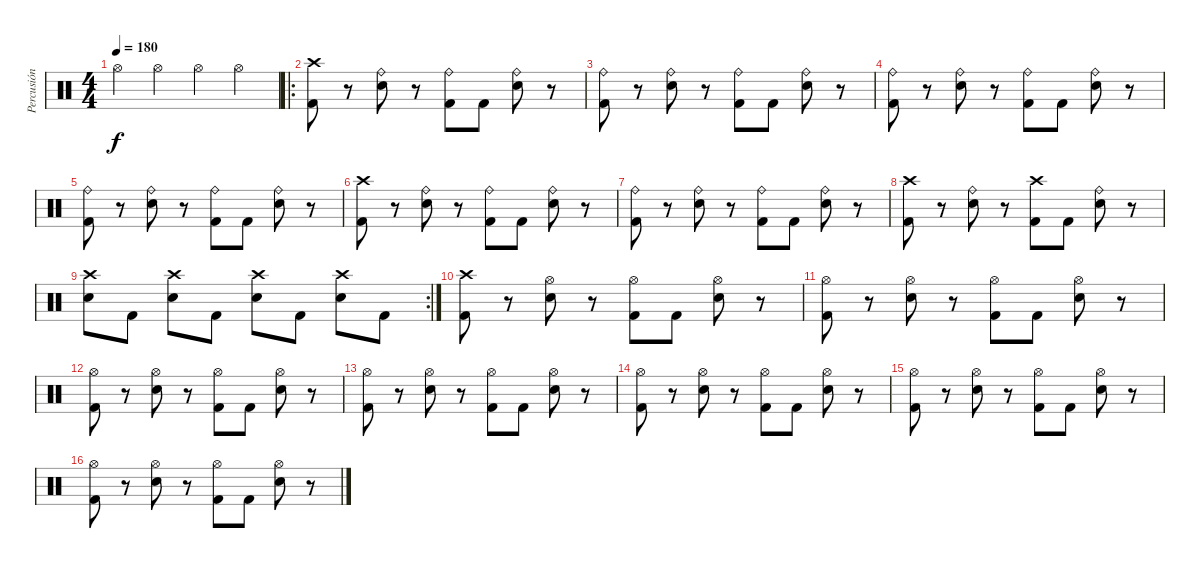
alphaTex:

\track ("Percusión" "Percusión") {instrument percussion}
\staff {score}
\articulation defaults
\ts (4 4)
\tempo 180
\clef neutral
\ks c "Hi-Hat (open)".4{dy f} "Hi-Hat (open)".4 "Hi-Hat (open)".4 "Hi-Hat (open)".4
|
\ro
("Crash high (hit)" "Kick (hit) 2").8 r.8 ("Ride (bell)" "Electric Snare (hit)").8 r.8 ("Ride (bell)" "Kick (hit) 2").8 "Kick (hit) 2".8 ("Ride (bell)" "Electric Snare (hit)").8 r.8 |
("Ride (bell)" "Kick (hit) 2").8 r.8 ("Ride (bell)" "Electric Snare (hit)").8 r.8 ("Ride (bell)" "Kick (hit) 2").8 "Kick (hit) 2".8 ("Ride (bell)" "Electric Snare (hit)").8 r.8 |
("Ride (bell)" "Kick (hit) 2").8 r.8 ("Ride (bell)" "Electric Snare (hit)").8 r.8 ("Ride (bell)" "Kick (hit) 2").8 "Kick (hit) 2".8 ("Ride (bell)" "Electric Snare (hit)").8 r.8 |
("Ride (bell)" "Kick (hit) 2").8 r.8 ("Ride (bell)" "Electric Snare (hit)").8 r.8 ("Ride (bell)" "Kick (hit) 2").8 "Kick (hit) 2".8 ("Ride (bell)" "Electric Snare (hit)").8 r.8 |
("Crash high (hit)" "Kick (hit) 2").8 r.8 ("Ride (bell)" "Electric Snare (hit)").8 r.8 ("Ride (bell)" "Kick (hit) 2").8 "Kick (hit) 2".8 ("Ride (bell)" "Electric Snare (hit)").8 r.8 |
("Ride (bell)" "Kick (hit) 2").8 r.8 ("Ride (bell)" "Electric Snare (hit)").8 r.8 ("Ride (bell)" "Kick (hit) 2").8 "Kick (hit) 2".8 ("Ride (bell)" "Electric Snare (hit)").8 r.8 |
("Crash high (hit)" "Kick (hit) 2").8 r.8 ("Ride (bell)" "Electric Snare (hit)").8 r.8 ("Crash high (hit)" "Kick (hit) 2").8 "Kick (hit) 2".8 ("Ride (bell)" "Electric Snare (hit)").8 r.8 |
\rc 2
("Crash high (hit)" "Electric Snare (hit)").8 "Kick (hit) 2".8 ("Crash high (hit)" "Electric Snare (hit)").8 "Kick (hit) 2".8 ("Crash high (hit)" "Electric Snare (hit)").8 "Kick (hit) 2".8 ("Crash high (hit)" "Electric Snare (hit)").8 "Kick (hit) 2".8 |
("Crash high (hit)" "Kick (hit) 2").8 r.8 ("Hi-Hat (open)" "Electric Snare (hit)").8 r.8 ("Hi-Hat (open)" "Kick (hit) 2").8 "Kick (hit) 2".8 ("Hi-Hat (open)" "Electric Snare (hit)").8 r.8 |
("Hi-Hat (open)" "Kick (hit) 2").8 r.8 ("Hi-Hat (open)" "Electric Snare (hit)").8 r.8 ("Hi-Hat (open)" "Kick (hit) 2").8 "Kick (hit) 2".8 ("Hi-Hat (open)" "Electric Snare (hit)").8 r.8 |
("Hi-Hat (open)" "Kick (hit) 2").8 r.8 ("Hi-Hat (open)" "Electric Snare (hit)").8 r.8 ("Hi-Hat (open)" "Kick (hit) 2").8 "Kick (hit) 2".8 ("Hi-Hat (open)" "Electric Snare (hit)").8 r.8 |
("Hi-Hat (open)" "Kick (hit) 2").8 r.8 ("Hi-Hat (open)" "Electric Snare (hit)").8 r.8 ("Hi-Hat (open)" "Kick (hit) 2").8 "Kick (hit) 2".8 ("Hi-Hat (open)" "Electric Snare (hit)").8 r.8 |
("Hi-Hat (open)" "Kick (hit) 2").8 r.8 ("Hi-Hat (open)" "Electric Snare (hit)").8 r.8 ("Hi-Hat (open)" "Kick (hit) 2").8 "Kick (hit) 2".8 ("Hi-Hat (open)" "Electric Snare (hit)").8 r.8 |
("Hi-Hat (open)" "Kick (hit) 2").8 r.8 ("Hi-Hat (open)" "Electric Snare (hit)").8 r.8 ("Hi-Hat (open)" "Kick (hit) 2").8 "Kick (hit) 2".8 ("Hi-Hat (open)" "Electric Snare (hit)").8 r.8 |
("Hi-Hat (open)" "Kick (hit) 2").8 r.8 ("Hi-Hat (open)" "Electric Snare (hit)").8 r.8 ("Hi-Hat (open)" "Kick (hit) 2").8 "Kick (hit) 2".8 ("Hi-Hat (open)" "Electric Snare (hit)").8 r.8
